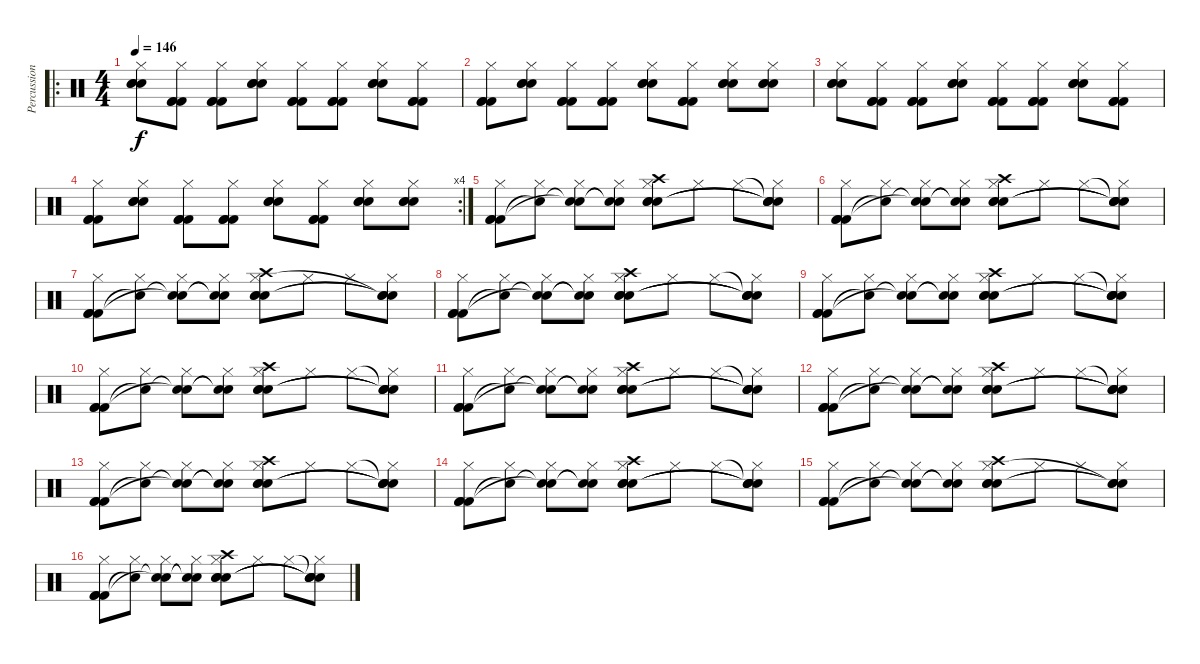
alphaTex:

\track ("Percussion" "Percussion") {instrument percussion}
\staff {score}
\articulation defaults
\ro
\ts (4 4)
\tempo 146
\clef neutral
\ks c
("Hi-Hat (closed)" "Snare (hit) 2" "Snare (hit) 2" "Snare (hit) 2").8{dy f} ("Hi-Hat (closed)" "Kick (hit) 2" "Kick (hit) 2" "Kick (hit) 2").8 ("Hi-Hat (closed)" "Kick (hit) 2" "Kick (hit) 2" "Kick (hit) 2").8 ("Hi-Hat (closed)" "Snare (hit) 2" "Snare (hit) 2" "Snare (hit) 2").8 ("Hi-Hat (closed)" "Kick (hit) 2" "Kick (hit) 2" "Kick (hit) 2").8 ("Hi-Hat (closed)" "Kick (hit) 2" "Kick (hit) 2" "Kick (hit) 2").8 ("Hi-Hat (closed)" "Snare (hit) 2" "Snare (hit) 2" "Snare (hit) 2").8 ("Hi-Hat (closed)" "Kick (hit) 2" "Kick (hit) 2" "Kick (hit) 2").8 |
("Hi-Hat (closed)" "Kick (hit) 2" "Kick (hit) 2" "Kick (hit) 2").8 ("Hi-Hat (closed)" "Snare (hit) 2" "Snare (hit) 2" "Snare (hit) 2").8 ("Hi-Hat (closed)" "Kick (hit) 2" "Kick (hit) 2" "Kick (hit) 2").8 ("Hi-Hat (closed)" "Kick (hit) 2" "Kick (hit) 2" "Kick (hit) 2").8 ("Hi-Hat (closed)" "Snare (hit) 2" "Snare (hit) 2" "Snare (hit) 2").8 ("Hi-Hat (closed)" "Kick (hit) 2" "Kick (hit) 2" "Kick (hit) 2").8 ("Hi-Hat (closed)" "Snare (hit) 2" "Snare (hit) 2" "Snare (hit) 2").8 ("Hi-Hat (closed)" "Snare (hit) 2" "Snare (hit) 2" "Snare (hit) 2").8 |
("Hi-Hat (closed)" "Snare (hit) 2" "Snare (hit) 2" "Snare (hit) 2").8 ("Hi-Hat (closed)" "Kick (hit) 2" "Kick (hit) 2" "Kick (hit) 2").8 ("Hi-Hat (closed)" "Kick (hit) 2" "Kick (hit) 2" "Kick (hit) 2").8 ("Hi-Hat (closed)" "Snare (hit) 2" "Snare (hit) 2" "Snare (hit) 2").8 ("Hi-Hat (closed)" "Kick (hit) 2" "Kick (hit) 2" "Kick (hit) 2").8 ("Hi-Hat (closed)" "Kick (hit) 2" "Kick (hit) 2" "Kick (hit) 2").8 ("Hi-Hat (closed)" "Snare (hit) 2" "Snare (hit) 2" "Snare (hit) 2").8 ("Hi-Hat (closed)" "Kick (hit) 2" "Kick (hit) 2" "Kick (hit) 2").8 |
\rc 4
("Hi-Hat (closed)" "Kick (hit) 2" "Kick (hit) 2" "Kick (hit) 2").8 ("Hi-Hat (closed)" "Snare (hit) 2" "Snare (hit) 2" "Snare (hit) 2").8 ("Hi-Hat (closed)" "Kick (hit) 2" "Kick (hit) 2" "Kick (hit) 2").8 ("Hi-Hat (closed)" "Kick (hit) 2" "Kick (hit) 2" "Kick (hit) 2").8 ("Hi-Hat (closed)" "Snare (hit) 2" "Snare (hit) 2" "Snare (hit) 2").8 ("Hi-Hat (closed)" "Kick (hit) 2" "Kick (hit) 2" "Kick (hit) 2").8 ("Hi-Hat (closed)" "Snare (hit) 2" "Snare (hit) 2" "Snare (hit) 2").8 ("Hi-Hat (closed)" "Snare (hit) 2" "Snare (hit) 2" "Snare (hit) 2").8 |
("Hi-Hat (closed)" "Kick (hit) 2" "Kick (hit) 2" "Kick (hit) 2").8 ("Hi-Hat (closed)" "Snare (hit)"{t}).8 ("Hi-Hat (closed)" "Snare (hit)"{t} "Snare (hit)"{t}).8 ("Hi-Hat (closed)" "Snare (hit)"{t} "Snare (hit)"{t}).8 ("Crash high (hit)" "Hi-Hat (closed)" "Snare (hit) 2" "Snare (hit) 2" "Snare (hit) 2").8 "Hi-Hat (closed)".8 "Hi-Hat (closed)".8 ("Snare (hit)"{t} "Hi-Hat (closed)" "Snare (hit)"{t} "Snare (hit)"{t} "Snare (hit)"{t}).8 |
("Hi-Hat (closed)" "Kick (hit) 2" "Kick (hit) 2" "Kick (hit) 2").8 ("Hi-Hat (closed)" "Snare (hit)"{t}).8 ("Hi-Hat (closed)" "Snare (hit)"{t} "Snare (hit)"{t}).8 ("Hi-Hat (closed)" "Snare (hit)"{t} "Snare (hit)"{t}).8 ("Crash high (hit)" "Hi-Hat (closed)" "Snare (hit) 2" "Snare (hit) 2" "Snare (hit) 2").8 "Hi-Hat (closed)".8 "Hi-Hat (closed)".8 ("Snare (hit)"{t} "Hi-Hat (closed)" "Snare (hit)"{t} "Snare (hit)"{t} "Snare (hit)"{t}).8 |
("Hi-Hat (closed)" "Kick (hit) 2" "Kick (hit) 2" "Kick (hit) 2").8 ("Hi-Hat (closed)" "Snare (hit)"{t}).8 ("Hi-Hat (closed)" "Snare (hit)"{t} "Snare (hit)"{t}).8 ("Hi-Hat (closed)" "Snare (hit)"{t} "Snare (hit)"{t}).8 ("Crash high (hit)" "Hi-Hat (closed)" "Snare (hit) 2" "Snare (hit) 2" "Snare (hit) 2").8 "Hi-Hat (closed)".8 "Hi-Hat (closed)".8 ("Hi-Hat (closed)" "Snare (hit)"{t} "Snare (hit)"{t} "Snare (hit)"{t}).8 |
("Hi-Hat (closed)" "Kick (hit) 2" "Kick (hit) 2" "Kick (hit) 2").8 ("Hi-Hat (closed)" "Snare (hit)"{t}).8 ("Hi-Hat (closed)" "Snare (hit)"{t} "Snare (hit)"{t}).8 ("Hi-Hat (closed)" "Snare (hit)"{t} "Snare (hit)"{t}).8 ("Crash high (hit)" "Hi-Hat (closed)" "Snare (hit) 2" "Snare (hit) 2" "Snare (hit) 2").8 "Hi-Hat (closed)".8 "Hi-Hat (closed)".8 ("Snare (hit)"{t} "Hi-Hat (closed)" "Snare (hit)"{t} "Snare (hit)"{t} "Snare (hit)"{t}).8 |
("Hi-Hat (closed)" "Kick (hit) 2" "Kick (hit) 2" "Kick (hit) 2").8 ("Hi-Hat (closed)" "Snare (hit)"{t}).8 ("Hi-Hat (closed)" "Snare (hit)"{t} "Snare (hit)"{t}).8 ("Hi-Hat (closed)" "Snare (hit)"{t} "Snare (hit)"{t}).8 ("Crash high (hit)" "Hi-Hat (closed)" "Snare (hit) 2" "Snare (hit) 2" "Snare (hit) 2").8 "Hi-Hat (closed)".8 "Hi-Hat (closed)".8 ("Snare (hit)"{t} "Hi-Hat (closed)" "Snare (hit)"{t} "Snare (hit)"{t} "Snare (hit)"{t}).8 |
("Hi-Hat (closed)" "Kick (hit) 2" "Kick (hit) 2" "Kick (hit) 2").8 ("Hi-Hat (closed)" "Snare (hit)"{t}).8 ("Hi-Hat (closed)" "Snare (hit)"{t} "Snare (hit)"{t}).8 ("Hi-Hat (closed)" "Snare (hit)"{t} "Snare (hit)"{t}).8 ("Crash high (hit)" "Hi-Hat (closed)" "Snare (hit) 2" "Snare (hit) 2" "Snare (hit) 2").8 "Hi-Hat (closed)".8 "Hi-Hat (closed)".8 ("Snare (hit)"{t} "Hi-Hat (closed)" "Snare (hit)"{t} "Snare (hit)"{t} "Snare (hit)"{t}).8 |
("Hi-Hat (closed)" "Kick (hit) 2" "Kick (hit) 2" "Kick (hit) 2").8 ("Hi-Hat (closed)" "Snare (hit)"{t}).8 ("Hi-Hat (closed)" "Snare (hit)"{t} "Snare (hit)"{t}).8 ("Hi-Hat (closed)" "Snare (hit)"{t} "Snare (hit)"{t}).8 ("Crash high (hit)" "Hi-Hat (closed)" "Snare (hit) 2" "Snare (hit) 2" "Snare (hit) 2").8 "Hi-Hat (closed)".8 "Hi-Hat (closed)".8 ("Snare (hit)"{t} "Hi-Hat (closed)" "Snare (hit)"{t} "Snare (hit)"{t} "Snare (hit)"{t}).8 |
("Hi-Hat (closed)" "Kick (hit) 2" "Kick (hit) 2" "Kick (hit) 2").8 ("Hi-Hat (closed)" "Snare (hit)"{t}).8 ("Hi-Hat (closed)" "Snare (hit)"{t} "Snare (hit)"{t}).8 ("Hi-Hat (closed)" "Snare (hit)"{t} "Snare (hit)"{t}).8 ("Crash high (hit)" "Hi-Hat (closed)" "Snare (hit) 2" "Snare (hit) 2" "Snare (hit) 2").8 "Hi-Hat (closed)".8 "Hi-Hat (closed)".8 ("Snare (hit)"{t} "Hi-Hat (closed)" "Snare (hit)"{t} "Snare (hit)"{t} "Snare (hit)"{t}).8 |
("Hi-Hat (closed)" "Kick (hit) 2" "Kick (hit) 2" "Kick (hit) 2").8 ("Hi-Hat (closed)" "Snare (hit)"{t}).8 ("Hi-Hat (closed)" "Snare (hit)"{t} "Snare (hit)"{t}).8 ("Hi-Hat (closed)" "Snare (hit)"{t} "Snare (hit)"{t}).8 ("Crash high (hit)" "Hi-Hat (closed)" "Snare (hit) 2" "Snare (hit) 2" "Snare (hit) 2").8 "Hi-Hat (closed)".8 "Hi-Hat (closed)".8 ("Snare (hit)"{t} "Hi-Hat (closed)" "Snare (hit)"{t} "Snare (hit)"{t} "Snare (hit)"{t}).8 |
("Hi-Hat (closed)" "Kick (hit) 2" "Kick (hit) 2" "Kick (hit) 2").8 ("Hi-Hat (closed)" "Snare (hit)"{t}).8 ("Hi-Hat (closed)" "Snare (hit)"{t} "Snare (hit)"{t}).8 ("Hi-Hat (closed)" "Snare (hit)"{t} "Snare (hit)"{t}).8 ("Crash high (hit)" "Hi-Hat (closed)" "Snare (hit) 2" "Snare (hit) 2" "Snare (hit) 2").8 "Hi-Hat (closed)".8 "Hi-Hat (closed)".8 ("Snare (hit)"{t} "Hi-Hat (closed)" "Snare (hit)"{t} "Snare (hit)"{t} "Snare (hit)"{t}).8 |
("Hi-Hat (closed)" "Kick (hit) 2" "Kick (hit) 2" "Kick (hit) 2").8 ("Hi-Hat (closed)" "Snare (hit)"{t}).8 ("Hi-Hat (closed)" "Snare (hit)"{t} "Snare (hit)"{t}).8 ("Hi-Hat (closed)" "Snare (hit)"{t} "Snare (hit)"{t}).8 ("Crash high (hit)" "Hi-Hat (closed)" "Snare (hit) 2" "Snare (hit) 2" "Snare (hit) 2").8 "Hi-Hat (closed)".8 "Hi-Hat (closed)".8 ("Hi-Hat (closed)" "Snare (hit)"{t} "Snare (hit)"{t} "Snare (hit)"{t}).8 |
("Hi-Hat (closed)" "Kick (hit) 2" "Kick (hit) 2" "Kick (hit) 2").8 ("Hi-Hat (closed)" "Snare (hit)"{t}).8 ("Hi-Hat (closed)" "Snare (hit)"{t} "Snare (hit)"{t}).8 ("Hi-Hat (closed)" "Snare (hit)"{t} "Snare (hit)"{t}).8 ("Crash high (hit)" "Hi-Hat (closed)" "Snare (hit) 2" "Snare (hit) 2" "Snare (hit) 2").8 "Hi-Hat (closed)".8 "Hi-Hat (closed)".8 ("Snare (hit)"{t} "Hi-Hat (closed)" "Snare (hit)"{t} "Snare (hit)"{t} "Snare (hit)"{t}).8
